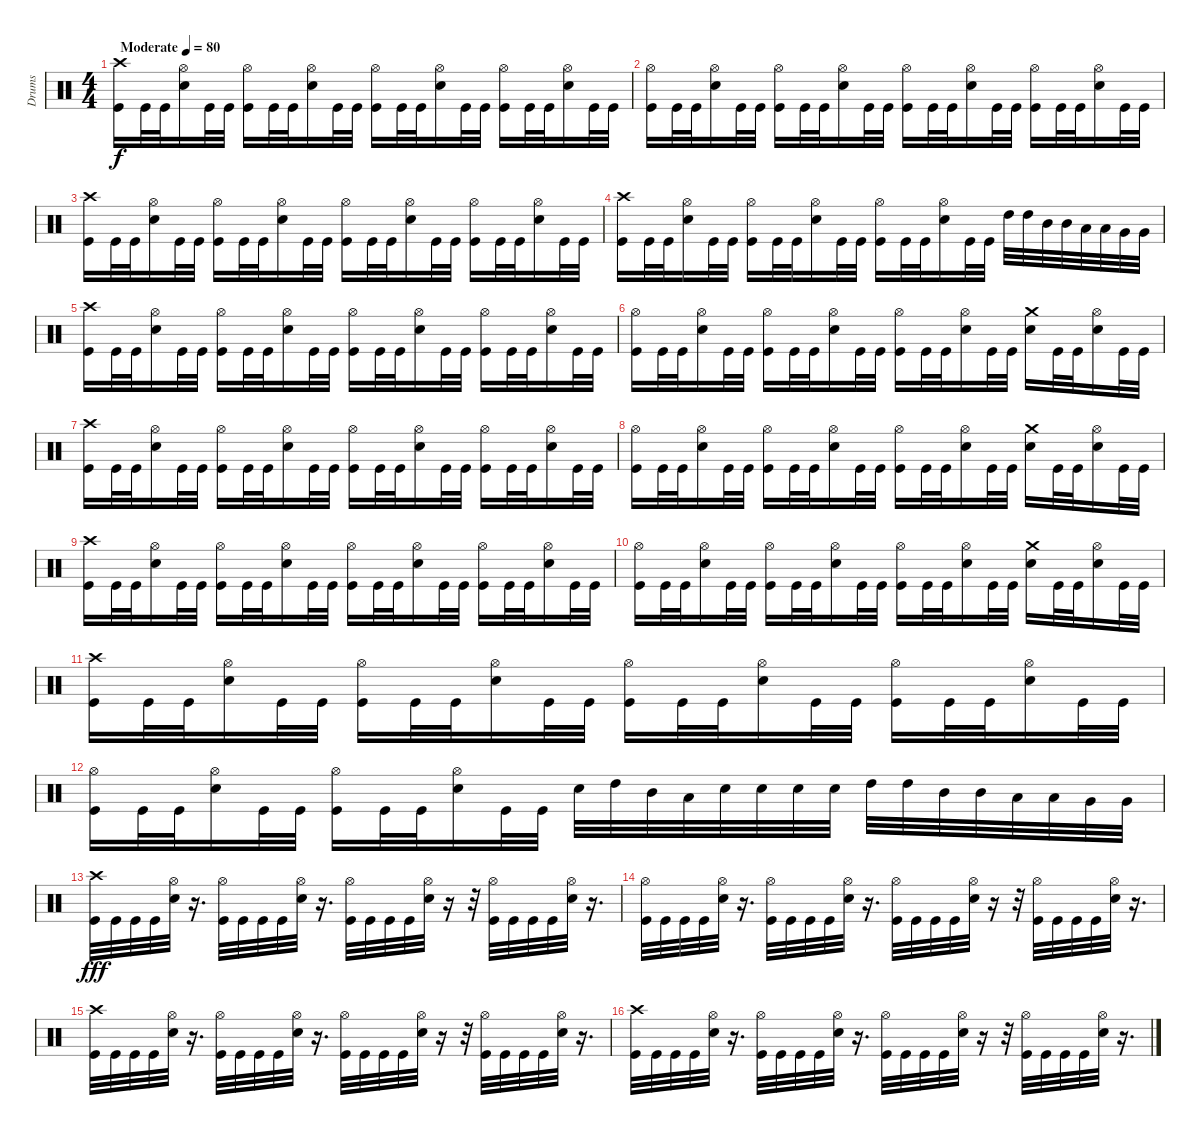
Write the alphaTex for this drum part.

\track ("Drums" "Drums") {instrument percussion}
\staff {score}
\articulation defaults
\ts (4 4)
\tempo (80 "Moderate")
\clef neutral
\ks c
("Crash high (hit)" "Kick (hit)").16{dy f} "Kick (hit)".32 "Kick (hit)".32 ("Hi-Hat (open)" "Electric Snare (hit)").16 "Kick (hit)".32 "Kick (hit)".32 ("Hi-Hat (open)" "Kick (hit)").16 "Kick (hit)".32 "Kick (hit)".32 ("Hi-Hat (open)" "Electric Snare (hit)").16 "Kick (hit)".32 "Kick (hit)".32 ("Hi-Hat (open)" "Kick (hit)").16 "Kick (hit)".32 "Kick (hit)".32 ("Hi-Hat (open)" "Electric Snare (hit)").16 "Kick (hit)".32 "Kick (hit)".32 ("Hi-Hat (open)" "Kick (hit)").16 "Kick (hit)".32 "Kick (hit)".32 ("Hi-Hat (open)" "Electric Snare (hit)").16 "Kick (hit)".32 "Kick (hit)".32 |
("Hi-Hat (open)" "Kick (hit)").16 "Kick (hit)".32 "Kick (hit)".32 ("Hi-Hat (open)" "Electric Snare (hit)").16 "Kick (hit)".32 "Kick (hit)".32 ("Hi-Hat (open)" "Kick (hit)").16 "Kick (hit)".32 "Kick (hit)".32 ("Hi-Hat (open)" "Electric Snare (hit)").16 "Kick (hit)".32 "Kick (hit)".32 ("Hi-Hat (open)" "Kick (hit)").16 "Kick (hit)".32 "Kick (hit)".32 ("Hi-Hat (open)" "Electric Snare (hit)").16 "Kick (hit)".32 "Kick (hit)".32 ("Hi-Hat (open)" "Kick (hit)").16 "Kick (hit)".32 "Kick (hit)".32 ("Hi-Hat (open)" "Electric Snare (hit)").16 "Kick (hit)".32 "Kick (hit)".32 |
("Crash high (hit)" "Kick (hit)").16 "Kick (hit)".32 "Kick (hit)".32 ("Hi-Hat (open)" "Electric Snare (hit)").16 "Kick (hit)".32 "Kick (hit)".32 ("Hi-Hat (open)" "Kick (hit)").16 "Kick (hit)".32 "Kick (hit)".32 ("Hi-Hat (open)" "Electric Snare (hit)").16 "Kick (hit)".32 "Kick (hit)".32 ("Hi-Hat (open)" "Kick (hit)").16 "Kick (hit)".32 "Kick (hit)".32 ("Hi-Hat (open)" "Electric Snare (hit)").16 "Kick (hit)".32 "Kick (hit)".32 ("Hi-Hat (open)" "Kick (hit)").16 "Kick (hit)".32 "Kick (hit)".32 ("Hi-Hat (open)" "Electric Snare (hit)").16 "Kick (hit)".32 "Kick (hit)".32 |
("Crash high (hit)" "Kick (hit)").16 "Kick (hit)".32 "Kick (hit)".32 ("Hi-Hat (open)" "Electric Snare (hit)").16 "Kick (hit)".32 "Kick (hit)".32 ("Hi-Hat (open)" "Kick (hit)").16 "Kick (hit)".32 "Kick (hit)".32 ("Hi-Hat (open)" "Electric Snare (hit)").16 "Kick (hit)".32 "Kick (hit)".32 ("Hi-Hat (open)" "Kick (hit)").16 "Kick (hit)".32 "Kick (hit)".32 ("Hi-Hat (open)" "Electric Snare (hit)").16 "Kick (hit)".32 "Kick (hit)".32 "High Tom (hit)".32 "High Tom (hit)".32 "Mid Tom (hit)".32 "Mid Tom (hit)".32 "Low Tom (hit)".32 "Low Tom (hit)".32 "Very Low Tom (hit)".32 "Very Low Tom (hit)".32 |
("Crash high (hit)" "Kick (hit)").16 "Kick (hit)".32 "Kick (hit)".32 ("Hi-Hat (open)" "Electric Snare (hit)").16 "Kick (hit)".32 "Kick (hit)".32 ("Hi-Hat (open)" "Kick (hit)").16 "Kick (hit)".32 "Kick (hit)".32 ("Hi-Hat (open)" "Electric Snare (hit)").16 "Kick (hit)".32 "Kick (hit)".32 ("Hi-Hat (open)" "Kick (hit)").16 "Kick (hit)".32 "Kick (hit)".32 ("Hi-Hat (open)" "Electric Snare (hit)").16 "Kick (hit)".32 "Kick (hit)".32 ("Hi-Hat (open)" "Kick (hit)").16 "Kick (hit)".32 "Kick (hit)".32 ("Hi-Hat (open)" "Electric Snare (hit)").16 "Kick (hit)".32 "Kick (hit)".32 |
("Hi-Hat (open)" "Kick (hit)").16 "Kick (hit)".32 "Kick (hit)".32 ("Hi-Hat (open)" "Electric Snare (hit)").16 "Kick (hit)".32 "Kick (hit)".32 ("Hi-Hat (open)" "Kick (hit)").16 "Kick (hit)".32 "Kick (hit)".32 ("Hi-Hat (open)" "Electric Snare (hit)").16 "Kick (hit)".32 "Kick (hit)".32 ("Hi-Hat (open)" "Kick (hit)").16 "Kick (hit)".32 "Kick (hit)".32 ("Hi-Hat (open)" "Electric Snare (hit)").16 "Kick (hit)".32 "Kick (hit)".32 ("Crash medium (hit)" "Electric Snare (hit)").16 "Kick (hit)".32 "Kick (hit)".32 ("Hi-Hat (open)" "Electric Snare (hit)").16 "Kick (hit)".32 "Kick (hit)".32 |
("Crash high (hit)" "Kick (hit)").16 "Kick (hit)".32 "Kick (hit)".32 ("Hi-Hat (open)" "Electric Snare (hit)").16 "Kick (hit)".32 "Kick (hit)".32 ("Hi-Hat (open)" "Kick (hit)").16 "Kick (hit)".32 "Kick (hit)".32 ("Hi-Hat (open)" "Electric Snare (hit)").16 "Kick (hit)".32 "Kick (hit)".32 ("Hi-Hat (open)" "Kick (hit)").16 "Kick (hit)".32 "Kick (hit)".32 ("Hi-Hat (open)" "Electric Snare (hit)").16 "Kick (hit)".32 "Kick (hit)".32 ("Hi-Hat (open)" "Kick (hit)").16 "Kick (hit)".32 "Kick (hit)".32 ("Hi-Hat (open)" "Electric Snare (hit)").16 "Kick (hit)".32 "Kick (hit)".32 |
("Hi-Hat (open)" "Kick (hit)").16 "Kick (hit)".32 "Kick (hit)".32 ("Hi-Hat (open)" "Electric Snare (hit)").16 "Kick (hit)".32 "Kick (hit)".32 ("Hi-Hat (open)" "Kick (hit)").16 "Kick (hit)".32 "Kick (hit)".32 ("Hi-Hat (open)" "Electric Snare (hit)").16 "Kick (hit)".32 "Kick (hit)".32 ("Hi-Hat (open)" "Kick (hit)").16 "Kick (hit)".32 "Kick (hit)".32 ("Hi-Hat (open)" "Electric Snare (hit)").16 "Kick (hit)".32 "Kick (hit)".32 ("Crash medium (hit)" "Electric Snare (hit)").16 "Kick (hit)".32 "Kick (hit)".32 ("Hi-Hat (open)" "Electric Snare (hit)").16 "Kick (hit)".32 "Kick (hit)".32 |
("Crash high (hit)" "Kick (hit)").16 "Kick (hit)".32 "Kick (hit)".32 ("Hi-Hat (open)" "Electric Snare (hit)").16 "Kick (hit)".32 "Kick (hit)".32 ("Hi-Hat (open)" "Kick (hit)").16 "Kick (hit)".32 "Kick (hit)".32 ("Hi-Hat (open)" "Electric Snare (hit)").16 "Kick (hit)".32 "Kick (hit)".32 ("Hi-Hat (open)" "Kick (hit)").16 "Kick (hit)".32 "Kick (hit)".32 ("Hi-Hat (open)" "Electric Snare (hit)").16 "Kick (hit)".32 "Kick (hit)".32 ("Hi-Hat (open)" "Kick (hit)").16 "Kick (hit)".32 "Kick (hit)".32 ("Hi-Hat (open)" "Electric Snare (hit)").16 "Kick (hit)".32 "Kick (hit)".32 |
("Hi-Hat (open)" "Kick (hit)").16 "Kick (hit)".32 "Kick (hit)".32 ("Hi-Hat (open)" "Electric Snare (hit)").16 "Kick (hit)".32 "Kick (hit)".32 ("Hi-Hat (open)" "Kick (hit)").16 "Kick (hit)".32 "Kick (hit)".32 ("Hi-Hat (open)" "Electric Snare (hit)").16 "Kick (hit)".32 "Kick (hit)".32 ("Hi-Hat (open)" "Kick (hit)").16 "Kick (hit)".32 "Kick (hit)".32 ("Hi-Hat (open)" "Electric Snare (hit)").16 "Kick (hit)".32 "Kick (hit)".32 ("Crash medium (hit)" "Electric Snare (hit)").16 "Kick (hit)".32 "Kick (hit)".32 ("Hi-Hat (open)" "Electric Snare (hit)").16 "Kick (hit)".32 "Kick (hit)".32 |
("Crash high (hit)" "Kick (hit)").16 "Kick (hit)".32 "Kick (hit)".32 ("Hi-Hat (open)" "Electric Snare (hit)").16 "Kick (hit)".32 "Kick (hit)".32 ("Hi-Hat (open)" "Kick (hit)").16 "Kick (hit)".32 "Kick (hit)".32 ("Hi-Hat (open)" "Electric Snare (hit)").16 "Kick (hit)".32 "Kick (hit)".32 ("Hi-Hat (open)" "Kick (hit)").16 "Kick (hit)".32 "Kick (hit)".32 ("Hi-Hat (open)" "Electric Snare (hit)").16 "Kick (hit)".32 "Kick (hit)".32 ("Hi-Hat (open)" "Kick (hit)").16 "Kick (hit)".32 "Kick (hit)".32 ("Hi-Hat (open)" "Electric Snare (hit)").16 "Kick (hit)".32 "Kick (hit)".32 |
("Hi-Hat (open)" "Kick (hit)").16 "Kick (hit)".32 "Kick (hit)".32 ("Hi-Hat (open)" "Electric Snare (hit)").16 "Kick (hit)".32 "Kick (hit)".32 ("Hi-Hat (open)" "Kick (hit)").16 "Kick (hit)".32 "Kick (hit)".32 ("Hi-Hat (open)" "Electric Snare (hit)").16 "Kick (hit)".32 "Kick (hit)".32 "Electric Snare (hit)".32 "High Tom (hit)".32 "Mid Tom (hit)".32 "Low Tom (hit)".32 "Electric Snare (hit)".32 "Electric Snare (hit)".32 "Electric Snare (hit)".32 "Electric Snare (hit)".32 "High Tom (hit)".32 "High Tom (hit)".32 "Mid Tom (hit)".32 "Mid Tom (hit)".32 "Low Tom (hit)".32 "Low Tom (hit)".32 "Very Low Tom (hit)".32 "Very Low Tom (hit)".32 |
("Crash high (hit)" "Kick (hit)").32{dy fff} "Kick (hit)".32 "Kick (hit)".32 "Kick (hit)".32 ("Hi-Hat (open)" "Electric Snare (hit)").32 r.16{d} ("Hi-Hat (open)" "Kick (hit)").32 "Kick (hit)".32 "Kick (hit)".32 "Kick (hit)".32 ("Hi-Hat (open)" "Electric Snare (hit)").32 r.16{d} ("Hi-Hat (open)" "Kick (hit)").32 "Kick (hit)".32 "Kick (hit)".32 "Kick (hit)".32 ("Hi-Hat (open)" "Electric Snare (hit)").32 r.16 r.32 ("Hi-Hat (open)" "Kick (hit)").32 "Kick (hit)".32 "Kick (hit)".32 "Kick (hit)".32 ("Hi-Hat (open)" "Electric Snare (hit)").32 r.16{d} |
("Hi-Hat (open)" "Kick (hit)").32 "Kick (hit)".32 "Kick (hit)".32 "Kick (hit)".32 ("Hi-Hat (open)" "Electric Snare (hit)").32 r.16{d} ("Hi-Hat (open)" "Kick (hit)").32 "Kick (hit)".32 "Kick (hit)".32 "Kick (hit)".32 ("Hi-Hat (open)" "Electric Snare (hit)").32 r.16{d} ("Hi-Hat (open)" "Kick (hit)").32 "Kick (hit)".32 "Kick (hit)".32 "Kick (hit)".32 ("Hi-Hat (open)" "Electric Snare (hit)").32 r.16 r.32 ("Hi-Hat (open)" "Kick (hit)").32 "Kick (hit)".32 "Kick (hit)".32 "Kick (hit)".32 ("Hi-Hat (open)" "Electric Snare (hit)").32 r.16{d} |
("Crash high (hit)" "Kick (hit)").32 "Kick (hit)".32 "Kick (hit)".32 "Kick (hit)".32 ("Hi-Hat (open)" "Electric Snare (hit)").32 r.16{d} ("Hi-Hat (open)" "Kick (hit)").32 "Kick (hit)".32 "Kick (hit)".32 "Kick (hit)".32 ("Hi-Hat (open)" "Electric Snare (hit)").32 r.16{d} ("Hi-Hat (open)" "Kick (hit)").32 "Kick (hit)".32 "Kick (hit)".32 "Kick (hit)".32 ("Hi-Hat (open)" "Electric Snare (hit)").32 r.16 r.32 ("Hi-Hat (open)" "Kick (hit)").32 "Kick (hit)".32 "Kick (hit)".32 "Kick (hit)".32 ("Hi-Hat (open)" "Electric Snare (hit)").32 r.16{d} |
("Crash high (hit)" "Kick (hit)").32 "Kick (hit)".32 "Kick (hit)".32 "Kick (hit)".32 ("Hi-Hat (open)" "Electric Snare (hit)").32 r.16{d} ("Hi-Hat (open)" "Kick (hit)").32 "Kick (hit)".32 "Kick (hit)".32 "Kick (hit)".32 ("Hi-Hat (open)" "Electric Snare (hit)").32 r.16{d} ("Hi-Hat (open)" "Kick (hit)").32 "Kick (hit)".32 "Kick (hit)".32 "Kick (hit)".32 ("Hi-Hat (open)" "Electric Snare (hit)").32 r.16 r.32 ("Hi-Hat (open)" "Kick (hit)").32 "Kick (hit)".32 "Kick (hit)".32 "Kick (hit)".32 ("Hi-Hat (open)" "Electric Snare (hit)").32 r.16{d}
